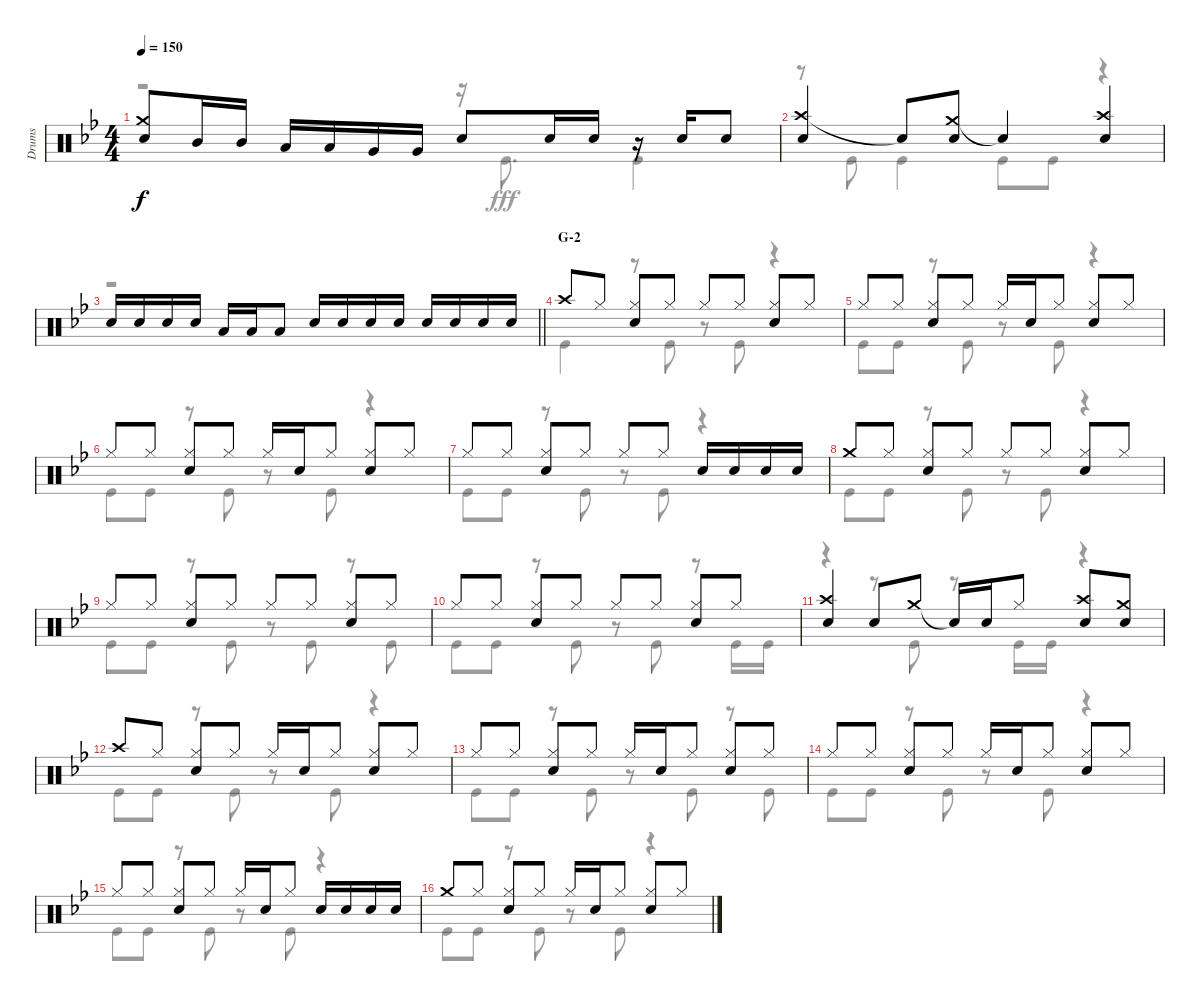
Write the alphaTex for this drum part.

\track ("Drums" "Drums") {instrument percussion}
\staff {score}
\articulation defaults
\voice
\ts (4 4)
\tempo 150
\clef neutral
\ks bb
("Crash medium (hit)" "Snare (hit) 2").8{dy f} "Mid Tom (hit)".16 "Mid Tom (hit)".16 "Low Tom (hit)".16 "Low Tom (hit)".16 "Very Low Tom (hit)".16 "Very Low Tom (hit)".16 "Snare (hit) 2".8 "Snare (hit) 2".16 "Snare (hit) 2".16 r.16 "Snare (hit) 2".16 "Snare (hit) 2".8 |
("Crash high (hit)" "Snare (hit) 2").4 "Snare (hit)"{t}.8 ("Crash medium (hit)" "Snare (hit) 2").8 "Snare (hit)"{t}.4 ("Crash high (hit)" "Snare (hit) 2").4 |
\barLineRight lightlight "Snare (hit) 2".16 "Snare (hit) 2".16 "Snare (hit) 2".16 "Snare (hit) 2".16 "Low Tom (hit)".16 "Low Tom (hit)".16 "Low Tom (hit)".8 "Snare (hit) 2".16 "Snare (hit) 2".16 "Snare (hit) 2".16 "Snare (hit) 2".16 "Snare (hit) 2".16 "Snare (hit) 2".16 "Snare (hit) 2".16 "Snare (hit) 2".16
|
\section ("" "G-2")
"Crash high (hit)".8 "Hi-Hat (closed)".8 ("Hi-Hat (closed)" "Snare (hit) 2").8 "Hi-Hat (closed)".8 "Hi-Hat (closed)".8 "Hi-Hat (closed)".8 ("Hi-Hat (closed)" "Snare (hit) 2").8 "Hi-Hat (closed)".8 |
"Hi-Hat (closed)".8 "Hi-Hat (closed)".8 ("Hi-Hat (closed)" "Snare (hit) 2").8 "Hi-Hat (closed)".8 "Hi-Hat (closed)".16 "Snare (hit) 2".16 "Hi-Hat (closed)".8 ("Hi-Hat (closed)" "Snare (hit) 2").8 "Hi-Hat (closed)".8 |
"Hi-Hat (closed)".8 "Hi-Hat (closed)".8 ("Hi-Hat (closed)" "Snare (hit) 2").8 "Hi-Hat (closed)".8 "Hi-Hat (closed)".16 "Snare (hit) 2".16 "Hi-Hat (closed)".8 ("Hi-Hat (closed)" "Snare (hit) 2").8 "Hi-Hat (closed)".8 |
"Hi-Hat (closed)".8 "Hi-Hat (closed)".8 ("Hi-Hat (closed)" "Snare (hit) 2").8 "Hi-Hat (closed)".8 "Hi-Hat (closed)".8 "Hi-Hat (closed)".8 "Snare (hit) 2".16 "Snare (hit) 2".16 "Snare (hit) 2".16 "Snare (hit) 2".16 |
"Crash medium (hit)".8 "Hi-Hat (closed)".8 ("Hi-Hat (closed)" "Snare (hit) 2").8 "Hi-Hat (closed)".8 "Hi-Hat (closed)".8 "Hi-Hat (closed)".8 ("Hi-Hat (closed)" "Snare (hit) 2").8 "Hi-Hat (closed)".8 |
"Hi-Hat (closed)".8 "Hi-Hat (closed)".8 ("Hi-Hat (closed)" "Snare (hit) 2").8 "Hi-Hat (closed)".8 "Hi-Hat (closed)".8 "Hi-Hat (closed)".8 ("Hi-Hat (closed)" "Snare (hit) 2").8 "Hi-Hat (closed)".8 |
"Hi-Hat (closed)".8 "Hi-Hat (closed)".8 ("Hi-Hat (closed)" "Snare (hit) 2").8 "Hi-Hat (closed)".8 "Hi-Hat (closed)".8 "Hi-Hat (closed)".8 ("Hi-Hat (closed)" "Snare (hit) 2").8 "Hi-Hat (closed)".8 |
("Crash high (hit)" "Snare (hit) 2").4 "Snare (hit) 2".8 "Crash medium (hit)".8 "Snare (hit)"{t}.16 "Snare (hit) 2".16 "Hi-Hat (closed)".8 ("Crash high (hit)" "Snare (hit) 2").8 ("Crash medium (hit)" "Snare (hit) 2").8 |
"Crash high (hit)".8 "Hi-Hat (closed)".8 ("Hi-Hat (closed)" "Snare (hit) 2").8 "Hi-Hat (closed)".8 "Hi-Hat (closed)".16 "Snare (hit) 2".16 "Hi-Hat (closed)".8 ("Hi-Hat (closed)" "Snare (hit) 2").8 "Hi-Hat (closed)".8 |
"Hi-Hat (closed)".8 "Hi-Hat (closed)".8 ("Hi-Hat (closed)" "Snare (hit) 2").8 "Hi-Hat (closed)".8 "Hi-Hat (closed)".16 "Snare (hit) 2".16 "Hi-Hat (closed)".8 ("Hi-Hat (closed)" "Snare (hit) 2").8 "Hi-Hat (closed)".8 |
"Hi-Hat (closed)".8 "Hi-Hat (closed)".8 ("Hi-Hat (closed)" "Snare (hit) 2").8 "Hi-Hat (closed)".8 "Hi-Hat (closed)".16 "Snare (hit) 2".16 "Hi-Hat (closed)".8 ("Hi-Hat (closed)" "Snare (hit) 2").8 "Hi-Hat (closed)".8 |
"Hi-Hat (closed)".8 "Hi-Hat (closed)".8 ("Hi-Hat (closed)" "Snare (hit) 2").8 "Hi-Hat (closed)".8 "Hi-Hat (closed)".16 "Snare (hit) 2".16 "Hi-Hat (closed)".8 "Snare (hit) 2".16 "Snare (hit) 2".16 "Snare (hit) 2".16 "Snare (hit) 2".16 |
"Crash medium (hit)".8 "Hi-Hat (closed)".8 ("Hi-Hat (closed)" "Snare (hit) 2").8 "Hi-Hat (closed)".8 "Hi-Hat (closed)".16 "Snare (hit) 2".16 "Hi-Hat (closed)".8 ("Hi-Hat (closed)" "Snare (hit) 2").8 "Hi-Hat (closed)".8
\voice
\clef neutral
\ottava regular
\simile none
\ks bb
r.2{dy fff} r.16 "Kick (hit)".8{d} "Kick (hit)".4 |
r.8 "Kick (hit)".8 "Kick (hit)".4 "Kick (hit)".8 "Kick (hit)".8 r.4 |
\barLineRight lightlight
r.1 |
"Kick (hit)".4 r.8 "Kick (hit)".8 r.8 "Kick (hit)".8 r.4 |
"Kick (hit)".8 "Kick (hit)".8 r.8 "Kick (hit)".8 r.8 "Kick (hit)".8 r.4 |
"Kick (hit)".8 "Kick (hit)".8 r.8 "Kick (hit)".8 r.8 "Kick (hit)".8 r.4 |
"Kick (hit)".8 "Kick (hit)".8 r.8 "Kick (hit)".8 r.8 "Kick (hit)".8 r.4 |
"Kick (hit)".8 "Kick (hit)".8 r.8 "Kick (hit)".8 r.8 "Kick (hit)".8 r.4 |
"Kick (hit)".8 "Kick (hit)".8 r.8 "Kick (hit)".8 r.8 "Kick (hit)".8 r.8 "Kick (hit)".8 |
"Kick (hit)".8 "Kick (hit)".8 r.8 "Kick (hit)".8 r.8 "Kick (hit)".8 r.8 "Kick (hit)".16 "Kick (hit)".16 |
r.4 r.8 "Kick (hit)".8 r.8 "Kick (hit)".16 "Kick (hit)".16 r.4 |
"Kick (hit)".8 "Kick (hit)".8 r.8 "Kick (hit)".8 r.8 "Kick (hit)".8 r.4 |
"Kick (hit)".8 "Kick (hit)".8 r.8 "Kick (hit)".8 r.8 "Kick (hit)".8 r.8 "Kick (hit)".8 |
"Kick (hit)".8 "Kick (hit)".8 r.8 "Kick (hit)".8 r.8 "Kick (hit)".8 r.4 |
"Kick (hit)".8 "Kick (hit)".8 r.8 "Kick (hit)".8 r.8 "Kick (hit)".8 r.4 |
"Kick (hit)".8 "Kick (hit)".8 r.8 "Kick (hit)".8 r.8 "Kick (hit)".8 r.4
